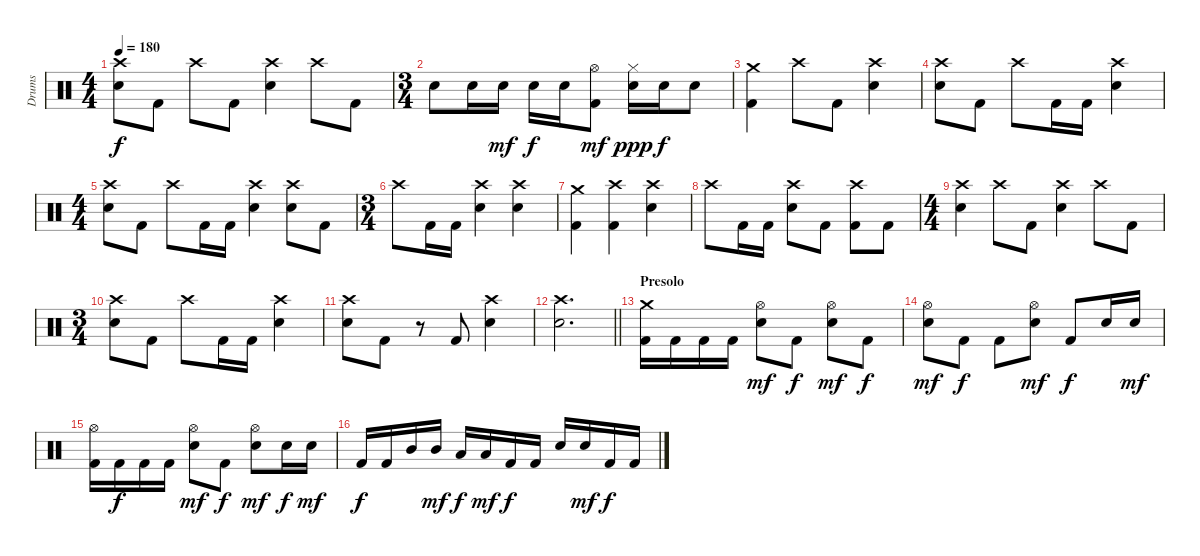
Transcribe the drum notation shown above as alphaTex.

\track ("Drums" "Drums") {instrument percussion}
\staff {score}
\articulation defaults
\ts (4 4)
\tempo 180
\clef neutral
\ks c
("Crash high (hit)" "Electric Snare (hit)").8{dy f} "Kick (hit) 2".8 "Crash high (hit)".8 "Kick (hit) 2".8 ("Crash high (hit)" "Electric Snare (hit)").4 "Crash high (hit)".8 "Kick (hit) 2".8 |
\ts (3 4)
"Electric Snare (hit)".8 "Electric Snare (hit)".16 "Electric Snare (hit)".16{dy mf} "Electric Snare (hit)".16{dy f} "Electric Snare (hit)".16 ("Kick (hit) 2" "Hi-Hat (open)").8{dy mf} ("Hi-Hat (closed)" "Electric Snare (hit)").16{dy ppp} "Electric Snare (hit)".16{dy f} "Electric Snare (hit)".8 |
("Kick (hit) 2" "Crash medium (hit)").4 "Crash high (hit)".8 "Kick (hit) 2".8 ("Crash high (hit)" "Electric Snare (hit)").4 |
("Crash high (hit)" "Electric Snare (hit)").8 "Kick (hit) 2".8 "Crash high (hit)".8 "Kick (hit) 2".16 "Kick (hit) 2".16 ("Crash high (hit)" "Electric Snare (hit)").4 |
\ts (4 4)
("Crash high (hit)" "Electric Snare (hit)").8 "Kick (hit) 2".8 "Crash high (hit)".8 "Kick (hit) 2".16 "Kick (hit) 2".16 ("Crash high (hit)" "Electric Snare (hit)").4 ("Crash high (hit)" "Electric Snare (hit)").8 "Kick (hit) 2".8 |
\ts (3 4)
"Crash high (hit)".8 "Kick (hit) 2".16 "Kick (hit) 2".16 ("Crash high (hit)" "Electric Snare (hit)").4 ("Crash high (hit)" "Electric Snare (hit)").4 |
("Kick (hit) 2" "Crash medium (hit)").4 ("Kick (hit) 2" "Crash high (hit)").4 ("Crash high (hit)" "Electric Snare (hit)").4 |
"Crash high (hit)".8 "Kick (hit) 2".16 "Kick (hit) 2".16 ("Crash high (hit)" "Electric Snare (hit)").8 "Kick (hit) 2".8 ("Kick (hit) 2" "Crash high (hit)").8 "Kick (hit) 2".8 |
\ts (4 4)
("Crash high (hit)" "Electric Snare (hit)").4 "Crash high (hit)".8 "Kick (hit) 2".8 ("Crash high (hit)" "Electric Snare (hit)").4 "Crash high (hit)".8 "Kick (hit) 2".8 |
\ts (3 4)
("Crash high (hit)" "Electric Snare (hit)").8 "Kick (hit) 2".8 "Crash high (hit)".8 "Kick (hit) 2".16 "Kick (hit) 2".16 ("Crash high (hit)" "Electric Snare (hit)").4 |
("Crash high (hit)" "Electric Snare (hit)").8 "Kick (hit) 2".8 r.8 "Kick (hit) 2".8 ("Crash high (hit)" "Electric Snare (hit)").4 |
\barLineRight lightlight
("Crash high (hit)" "Electric Snare (hit)").2{d} |
\section ("" "Presolo")
("Kick (hit) 2" "Crash medium (hit)").16 "Kick (hit) 2".16 "Kick (hit) 2".16 "Kick (hit) 2".16 ("Hi-Hat (open)" "Electric Snare (hit)").8{dy mf} "Kick (hit) 2".8{dy f} ("Hi-Hat (open)" "Electric Snare (hit)").8{dy mf} "Kick (hit) 2".8{dy f} |
("Hi-Hat (open)" "Electric Snare (hit)").8{dy mf} "Kick (hit) 2".8{dy f} "Kick (hit) 2".8 ("Hi-Hat (open)" "Electric Snare (hit)").8{dy mf} "Kick (hit) 2".8{dy f} "Electric Snare (hit)".16 "Electric Snare (hit)".16{dy mf} |
("Kick (hit) 2" "Hi-Hat (open)").16 "Kick (hit) 2".16{dy f} "Kick (hit) 2".16 "Kick (hit) 2".16 ("Hi-Hat (open)" "Electric Snare (hit)").8{dy mf} "Kick (hit) 2".8{dy f} ("Hi-Hat (open)" "Electric Snare (hit)").8{dy mf} "Electric Snare (hit)".16{dy f} "Electric Snare (hit)".16{dy mf} |
"Kick (hit) 2".16{dy f} "Kick (hit) 2".16 "Mid Tom (hit)".16 "Mid Tom (hit)".16{dy mf} "Low Tom (hit)".16{dy f} "Low Tom (hit)".16{dy mf} "Kick (hit) 2".16{dy f} "Kick (hit) 2".16 "Electric Snare (hit)".16 "Electric Snare (hit)".16{dy mf} "Kick (hit) 2".16{dy f} "Kick (hit) 2".16
